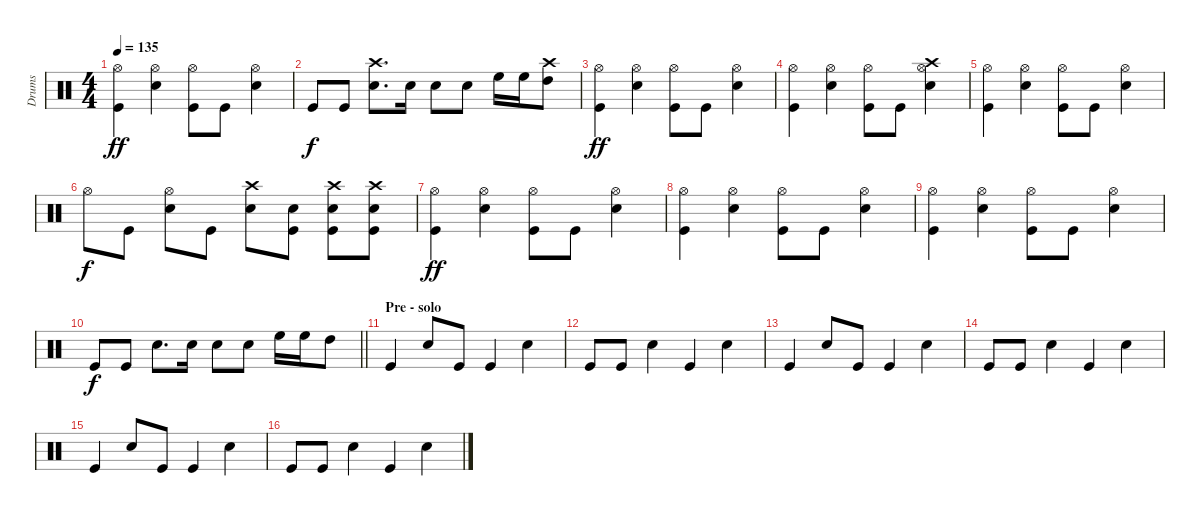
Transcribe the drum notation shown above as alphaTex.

\track ("Drums" "Drums") {instrument percussion}
\staff {score}
\articulation defaults
\ts (4 4)
\tempo 135
\clef neutral
\ks c
("Kick (hit)" "Hi-Hat (open)").4{dy ff} ("Snare (hit) 2" "Hi-Hat (open)").4 ("Kick (hit)" "Hi-Hat (open)").8 "Kick (hit)".8 ("Snare (hit) 2" "Hi-Hat (open)").4 |
"Kick (hit)".8{dy f} "Kick (hit)".8 ("Snare (hit) 2" "Crash high (hit)").8{d} "Snare (hit) 2".16 "Snare (hit) 2".8 "Snare (hit) 2".8 "High Floor Tom (hit)".16 "High Floor Tom (hit)".16 ("High Tom (hit)" "Crash high (hit)").8 |
("Kick (hit)" "Hi-Hat (open)").4{dy ff} ("Snare (hit) 2" "Hi-Hat (open)").4 ("Kick (hit)" "Hi-Hat (open)").8 "Kick (hit)".8 ("Snare (hit) 2" "Hi-Hat (open)").4 |
("Kick (hit)" "Hi-Hat (open)").4 ("Snare (hit) 2" "Hi-Hat (open)").4 ("Kick (hit)" "Hi-Hat (open)").8 "Kick (hit)".8 ("Snare (hit) 2" "Hi-Hat (open)" "Crash high (hit)").4 |
("Kick (hit)" "Hi-Hat (open)").4 ("Snare (hit) 2" "Hi-Hat (open)").4 ("Kick (hit)" "Hi-Hat (open)").8 "Kick (hit)".8 ("Snare (hit) 2" "Hi-Hat (open)").4 |
"Hi-Hat (open)".8{dy f} "Kick (hit)".8 ("Snare (hit) 2" "Hi-Hat (open)").8 "Kick (hit)".8 ("Snare (hit) 2" "Crash high (hit)").8 ("Kick (hit)" "Snare (hit) 2").8 ("Kick (hit)" "Snare (hit) 2" "Crash high (hit)").8 ("Kick (hit)" "Snare (hit) 2" "Crash high (hit)").8 |
("Kick (hit)" "Hi-Hat (open)").4{dy ff} ("Snare (hit) 2" "Hi-Hat (open)").4 ("Kick (hit)" "Hi-Hat (open)").8 "Kick (hit)".8 ("Snare (hit) 2" "Hi-Hat (open)").4 |
("Kick (hit)" "Hi-Hat (open)").4 ("Snare (hit) 2" "Hi-Hat (open)").4 ("Kick (hit)" "Hi-Hat (open)").8 "Kick (hit)".8 ("Snare (hit) 2" "Hi-Hat (open)").4 |
("Kick (hit)" "Hi-Hat (open)").4 ("Snare (hit) 2" "Hi-Hat (open)").4 ("Kick (hit)" "Hi-Hat (open)").8 "Kick (hit)".8 ("Snare (hit) 2" "Hi-Hat (open)").4 |
\barLineRight lightlight "Kick (hit)".8{dy f} "Kick (hit)".8 "Snare (hit) 2".8{d} "Snare (hit) 2".16 "Snare (hit) 2".8 "Snare (hit) 2".8 "High Floor Tom (hit)".16 "High Floor Tom (hit)".16 "High Tom (hit)".8
|
\section ("" "Pre - solo")
"Kick (hit)".4 "Snare (hit) 2".8 "Kick (hit)".8 "Kick (hit)".4 "Snare (hit) 2".4 |
"Kick (hit)".8 "Kick (hit)".8 "Snare (hit) 2".4 "Kick (hit)".4 "Snare (hit) 2".4 |
"Kick (hit)".4 "Snare (hit) 2".8 "Kick (hit)".8 "Kick (hit)".4 "Snare (hit) 2".4 |
"Kick (hit)".8 "Kick (hit)".8 "Snare (hit) 2".4 "Kick (hit)".4 "Snare (hit) 2".4 |
"Kick (hit)".4 "Snare (hit) 2".8 "Kick (hit)".8 "Kick (hit)".4 "Snare (hit) 2".4 |
"Kick (hit)".8 "Kick (hit)".8 "Snare (hit) 2".4 "Kick (hit)".4 "Snare (hit) 2".4
